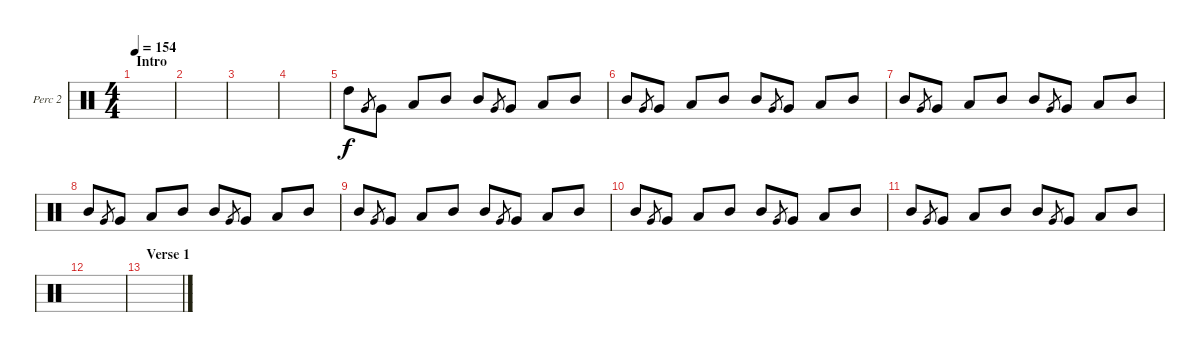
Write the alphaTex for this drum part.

\defaultSystemsLayout 4
\bracketExtendMode groupsimilarinstruments
\firstSystemTrackNameOrientation horizontal
\otherSystemsTrackNameOrientation horizontal
\track ("Percussion 2" "Perc 2") {instrument percussion}
\staff {score}
\articulation defaults
\ts (4 4)
\section ("" "Intro")
\tempo 154
\clef neutral
\scale
0.474178
\ks c
|
\scale
0.262911 |
\scale
0.262911 |
\scale
0.333333 |
\scale
0.333333 "High Tom (hit)".8 "Very Low Tom (hit)".8{gr} "Very Low Tom (hit)".8 "Low Tom (hit)".8 "Mid Tom (hit)".8 "Mid Tom (hit)".8 "Very Low Tom (hit)".8{gr} "Very Low Tom (hit)".8 "Low Tom (hit)".8 "Mid Tom (hit)".8 |
\scale
0.333333 "Mid Tom (hit)".8 "Very Low Tom (hit)".8{gr} "Very Low Tom (hit)".8 "Low Tom (hit)".8 "Mid Tom (hit)".8 "Mid Tom (hit)".8 "Very Low Tom (hit)".8{gr} "Very Low Tom (hit)".8 "Low Tom (hit)".8 "Mid Tom (hit)".8 |
\scale
0.333333 "Mid Tom (hit)".8 "Very Low Tom (hit)".8{gr} "Very Low Tom (hit)".8 "Low Tom (hit)".8 "Mid Tom (hit)".8 "Mid Tom (hit)".8 "Very Low Tom (hit)".8{gr} "Very Low Tom (hit)".8 "Low Tom (hit)".8 "Mid Tom (hit)".8 |
\scale
0.333333 "Mid Tom (hit)".8 "Very Low Tom (hit)".8{gr} "Very Low Tom (hit)".8 "Low Tom (hit)".8 "Mid Tom (hit)".8 "Mid Tom (hit)".8 "Very Low Tom (hit)".8{gr} "Very Low Tom (hit)".8 "Low Tom (hit)".8 "Mid Tom (hit)".8 |
\scale
0.333333 "Mid Tom (hit)".8 "Very Low Tom (hit)".8{gr} "Very Low Tom (hit)".8 "Low Tom (hit)".8 "Mid Tom (hit)".8 "Mid Tom (hit)".8 "Very Low Tom (hit)".8{gr} "Very Low Tom (hit)".8 "Low Tom (hit)".8 "Mid Tom (hit)".8 |
\scale
0.333333 "Mid Tom (hit)".8 "Very Low Tom (hit)".8{gr} "Very Low Tom (hit)".8 "Low Tom (hit)".8 "Mid Tom (hit)".8 "Mid Tom (hit)".8 "Very Low Tom (hit)".8{gr} "Very Low Tom (hit)".8 "Low Tom (hit)".8 "Mid Tom (hit)".8 |
\scale
0.333333 "Mid Tom (hit)".8 "Very Low Tom (hit)".8{gr} "Very Low Tom (hit)".8 "Low Tom (hit)".8 "Mid Tom (hit)".8 "Mid Tom (hit)".8 "Very Low Tom (hit)".8{gr} "Very Low Tom (hit)".8 "Low Tom (hit)".8 "Mid Tom (hit)".8 |
\scale
0.333333 |
\section ("" "Verse 1")
\scale
0.333333 |
\scale
0.333333 |
\scale
0.333333 |
\scale
0.333333
